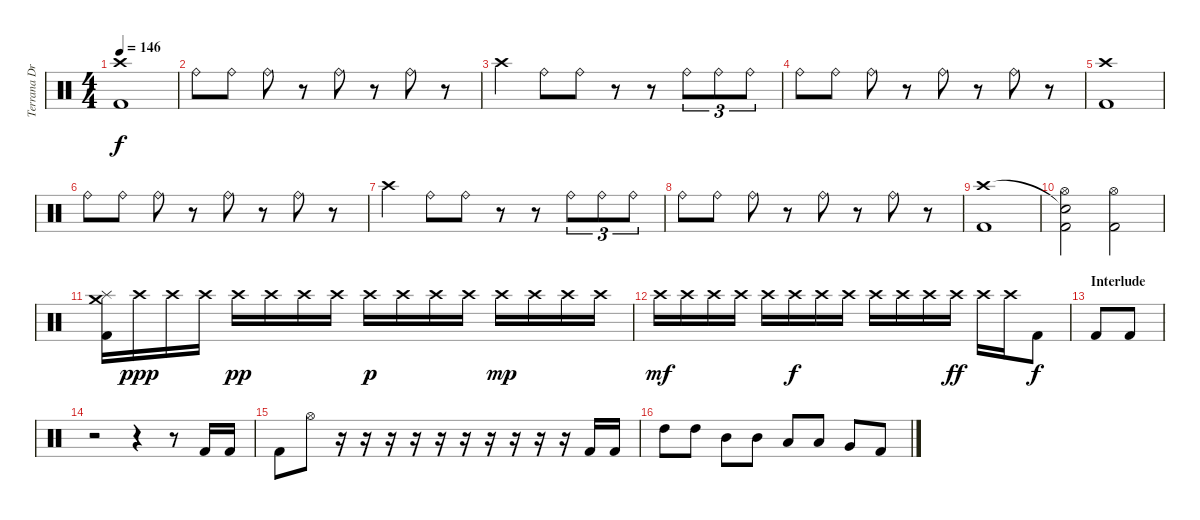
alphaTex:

\track ("Terrana Drums" "Terrana Dr") {instrument percussion}
\staff {score}
\articulation defaults
\ts (4 4)
\tempo 146
\clef neutral
\ks c
("Crash high (hit)" "Kick (hit) 2").1{dy f} |
"Ride (bell)".8 "Ride (bell)".8 "Ride (bell)".8 r.8 "Ride (bell)".8 r.8 "Ride (bell)".8 r.8 |
"Crash high (hit)".4 "Ride (bell)".8 "Ride (bell)".8 r.8 r.8 "Ride (bell)".8{tu (3 2)} "Ride (bell)".8{tu (3 2)} "Ride (bell)".8{tu (3 2)} |
"Ride (bell)".8 "Ride (bell)".8 "Ride (bell)".8 r.8 "Ride (bell)".8 r.8 "Ride (bell)".8 r.8 |
("Crash high (hit)" "Kick (hit) 2").1 |
"Ride (bell)".8 "Ride (bell)".8 "Ride (bell)".8 r.8 "Ride (bell)".8 r.8 "Ride (bell)".8 r.8 |
"Crash high (hit)".4 "Ride (bell)".8 "Ride (bell)".8 r.8 r.8 "Ride (bell)".8{tu (3 2)} "Ride (bell)".8{tu (3 2)} "Ride (bell)".8{tu (3 2)} |
"Ride (bell)".8 "Ride (bell)".8 "Ride (bell)".8 r.8 "Ride (bell)".8 r.8 "Ride (bell)".8 r.8 |
("Crash high (hit)" "Kick (hit) 2").1 |
("Snare (hit)"{t} "Hi-Hat (open)" "Kick (hit) 2").2 ("Hi-Hat (open)" "Kick (hit) 2").2 |
("Crash medium (hit)" "Splash (hit)" "Kick (hit) 2").16 "Crash high (hit)".16{dy ppp} "Crash high (hit)".16 "Crash high (hit)".16 "Crash high (hit)".16{dy pp} "Crash high (hit)".16 "Crash high (hit)".16 "Crash high (hit)".16 "Crash high (hit)".16{dy p} "Crash high (hit)".16 "Crash high (hit)".16 "Crash high (hit)".16 "Crash high (hit)".16{dy mp} "Crash high (hit)".16 "Crash high (hit)".16 "Crash high (hit)".16 |
"Crash high (hit)".16{dy mf} "Crash high (hit)".16 "Crash high (hit)".16 "Crash high (hit)".16 "Crash high (hit)".16 "Crash high (hit)".16{dy f} "Crash high (hit)".16 "Crash high (hit)".16 "Crash high (hit)".16 "Crash high (hit)".16 "Crash high (hit)".16 "Crash high (hit)".16{dy ff} "Crash high (hit)".16 "Crash high (hit)".16 "Kick (hit) 2".8{dy f} |
\section ("" "Interlude")
"Kick (hit) 2".8 "Kick (hit) 2".8 |
r.2 r.4 r.8 "Kick (hit) 2".16 "Kick (hit) 2".16 |
"Kick (hit) 2".8 "Hi-Hat (open)".8 r.16 r.16 r.16 r.16 r.16 r.16 r.16 r.16 r.16 r.16 "Kick (hit) 2".16 "Kick (hit) 2".16 |
"High Tom (hit)".8 "High Tom (hit)".8 "Mid Tom (hit)".8 "Mid Tom (hit)".8 "Low Tom (hit)".8 "Low Tom (hit)".8 "Very Low Tom (hit)".8 "Kick (hit) 2".8
